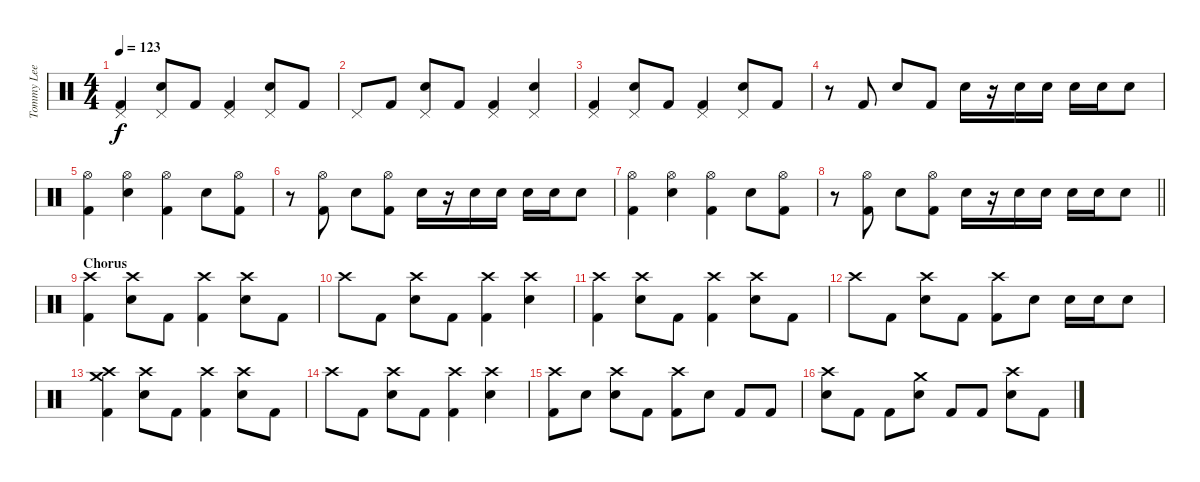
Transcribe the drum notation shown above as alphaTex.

\track ("Tommy Lee" "Tommy Lee") {instrument percussion}
\staff {score}
\articulation defaults
\ts (4 4)
\tempo 123
\clef neutral
\ks c
("Pedal Hi-Hat (hit)" "Kick (hit) 2").4{dy f} ("Pedal Hi-Hat (hit)" "Snare (hit) 2").8 "Kick (hit) 2".8 ("Pedal Hi-Hat (hit)" "Kick (hit) 2").4 ("Pedal Hi-Hat (hit)" "Snare (hit) 2").8 "Kick (hit) 2".8 |
"Pedal Hi-Hat (hit)".8 "Kick (hit) 2".8 ("Pedal Hi-Hat (hit)" "Snare (hit) 2").8 "Kick (hit) 2".8 ("Pedal Hi-Hat (hit)" "Kick (hit) 2").4 ("Pedal Hi-Hat (hit)" "Snare (hit) 2").4 |
("Pedal Hi-Hat (hit)" "Kick (hit) 2").4 ("Pedal Hi-Hat (hit)" "Snare (hit) 2").8 "Kick (hit) 2".8 ("Pedal Hi-Hat (hit)" "Kick (hit) 2").4 ("Pedal Hi-Hat (hit)" "Snare (hit) 2").8 "Kick (hit) 2".8 |
r.8 "Kick (hit) 2".8 "Snare (hit) 2".8 "Kick (hit) 2".8 "Snare (hit) 2".16 r.16 "Snare (hit) 2".16 "Snare (hit) 2".16 "Snare (hit) 2".16 "Snare (hit) 2".16 "Snare (hit) 2".8 |
("Hi-Hat (open)" "Kick (hit) 2").4 ("Hi-Hat (open)" "Snare (hit) 2").4 ("Hi-Hat (open)" "Kick (hit) 2").4 "Snare (hit) 2".8 ("Hi-Hat (open)" "Kick (hit) 2").8 |
r.8 ("Hi-Hat (open)" "Kick (hit) 2").8 "Snare (hit) 2".8 ("Hi-Hat (open)" "Kick (hit) 2").8 "Snare (hit) 2".16 r.16 "Snare (hit) 2".16 "Snare (hit) 2".16 "Snare (hit) 2".16 "Snare (hit) 2".16 "Snare (hit) 2".8 |
("Hi-Hat (open)" "Kick (hit) 2").4 ("Hi-Hat (open)" "Snare (hit) 2").4 ("Hi-Hat (open)" "Kick (hit) 2").4 "Snare (hit) 2".8 ("Hi-Hat (open)" "Kick (hit) 2").8 |
\barLineRight lightlight
r.8 ("Hi-Hat (open)" "Kick (hit) 2").8 "Snare (hit) 2".8 ("Hi-Hat (open)" "Kick (hit) 2").8 "Snare (hit) 2".16 r.16 "Snare (hit) 2".16 "Snare (hit) 2".16 "Snare (hit) 2".16 "Snare (hit) 2".16 "Snare (hit) 2".8 |
\section ("" "Chorus")
("Crash high (hit)" "Kick (hit) 2").4 ("Crash high (hit)" "Snare (hit) 2").8 "Kick (hit) 2".8 ("Crash high (hit)" "Kick (hit) 2").4 ("Crash high (hit)" "Snare (hit) 2").8 "Kick (hit) 2".8 |
"Crash high (hit)".8 "Kick (hit) 2".8 ("Crash high (hit)" "Snare (hit) 2").8 "Kick (hit) 2".8 ("Crash high (hit)" "Kick (hit) 2").4 ("Crash high (hit)" "Snare (hit) 2").4 |
("Crash high (hit)" "Kick (hit) 2").4 ("Crash high (hit)" "Snare (hit) 2").8 "Kick (hit) 2".8 ("Crash high (hit)" "Kick (hit) 2").4 ("Crash high (hit)" "Snare (hit) 2").8 "Kick (hit) 2".8 |
"Crash high (hit)".8 "Kick (hit) 2".8 ("Crash high (hit)" "Snare (hit) 2").8 "Kick (hit) 2".8 ("Crash high (hit)" "Kick (hit) 2").8 "Snare (hit) 2".8 "Snare (hit) 2".16 "Snare (hit) 2".16 "Snare (hit) 2".8 |
("Crash high (hit)" "Crash medium (hit)" "Kick (hit) 2").4 ("Crash high (hit)" "Snare (hit) 2").8 "Kick (hit) 2".8 ("Crash high (hit)" "Kick (hit) 2").4 ("Crash high (hit)" "Snare (hit) 2").8 "Kick (hit) 2".8 |
"Crash high (hit)".8 "Kick (hit) 2".8 ("Crash high (hit)" "Snare (hit) 2").8 "Kick (hit) 2".8 ("Crash high (hit)" "Kick (hit) 2").4 ("Crash high (hit)" "Snare (hit) 2").4 |
("Crash high (hit)" "Kick (hit) 2").8 "Snare (hit) 2".8 ("Crash high (hit)" "Snare (hit) 2").8 "Kick (hit) 2".8 ("Crash high (hit)" "Kick (hit) 2").8 "Snare (hit) 2".8 "Kick (hit) 2".8 "Kick (hit) 2".8 |
("Crash high (hit)" "Snare (hit) 2").8 "Kick (hit) 2".8 "Kick (hit) 2".8 ("Crash medium (hit)" "Snare (hit) 2").8 "Kick (hit) 2".8 "Kick (hit) 2".8 ("Crash high (hit)" "Snare (hit) 2").8 "Kick (hit) 2".8
